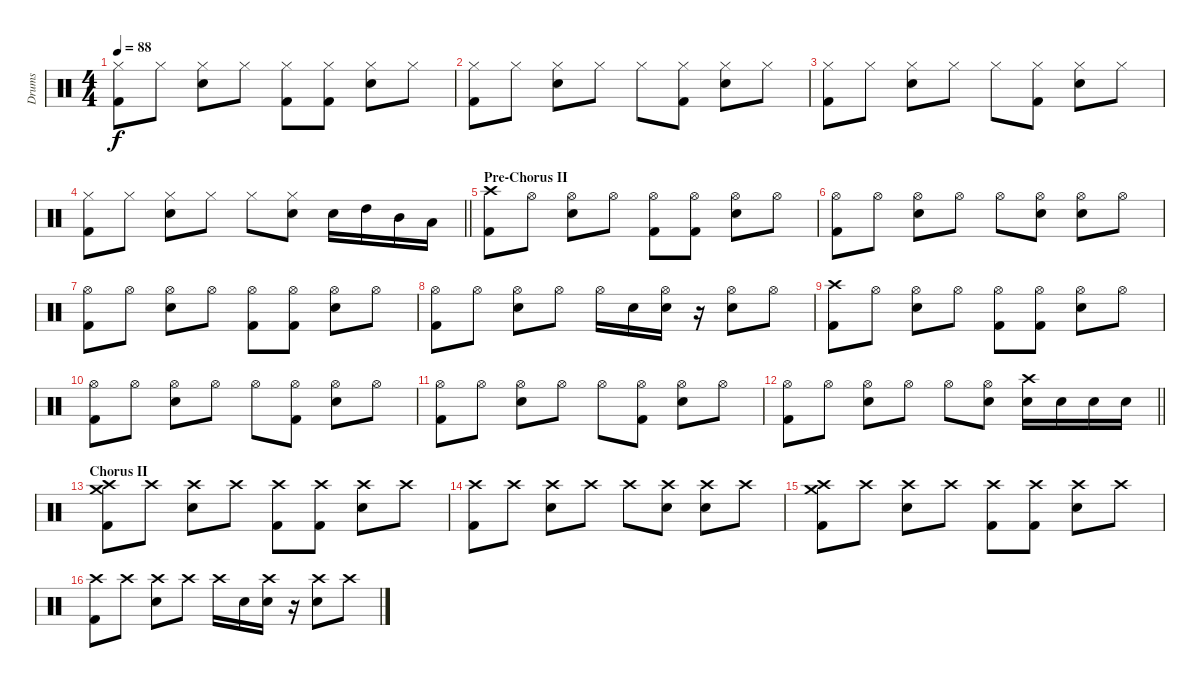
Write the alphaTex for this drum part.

\track ("Drums" "Drums") {instrument percussion}
\staff {score}
\articulation defaults
\ts (4 4)
\tempo 88
\clef neutral
\ks c
("Hi-Hat (closed)" "Kick (hit) 2").8{dy f} "Hi-Hat (closed)".8 ("Hi-Hat (closed)" "Electric Snare (hit)").8 "Hi-Hat (closed)".8 ("Hi-Hat (closed)" "Kick (hit) 2").8 ("Hi-Hat (closed)" "Kick (hit) 2").8 ("Hi-Hat (closed)" "Electric Snare (hit)").8 "Hi-Hat (closed)".8 |
("Hi-Hat (closed)" "Kick (hit) 2").8 "Hi-Hat (closed)".8 ("Hi-Hat (closed)" "Electric Snare (hit)").8 "Hi-Hat (closed)".8 "Hi-Hat (closed)".8 ("Hi-Hat (closed)" "Kick (hit) 2").8 ("Hi-Hat (closed)" "Electric Snare (hit)").8 "Hi-Hat (closed)".8 |
("Hi-Hat (closed)" "Kick (hit) 2").8 "Hi-Hat (closed)".8 ("Hi-Hat (closed)" "Electric Snare (hit)").8 "Hi-Hat (closed)".8 "Hi-Hat (closed)".8 ("Hi-Hat (closed)" "Kick (hit) 2").8 ("Hi-Hat (closed)" "Electric Snare (hit)").8 "Hi-Hat (closed)".8 |
\barLineRight lightlight
("Hi-Hat (closed)" "Kick (hit) 2").8 "Hi-Hat (closed)".8 ("Hi-Hat (closed)" "Electric Snare (hit)").8 "Hi-Hat (closed)".8 "Hi-Hat (closed)".8 ("Hi-Hat (closed)" "Electric Snare (hit)").8 "Electric Snare (hit)".16 "High Tom (hit)".16 "Mid Tom (hit)".16 "Low Tom (hit)".16 |
\section ("" "Pre-Chorus II")
("Crash high (hit)" "Kick (hit) 2").8 "Hi-Hat (open)".8 ("Hi-Hat (open)" "Electric Snare (hit)").8 "Hi-Hat (open)".8 ("Hi-Hat (open)" "Kick (hit) 2").8 ("Hi-Hat (open)" "Kick (hit) 2").8 ("Hi-Hat (open)" "Electric Snare (hit)").8 "Hi-Hat (open)".8 |
("Hi-Hat (open)" "Kick (hit) 2").8 "Hi-Hat (open)".8 ("Hi-Hat (open)" "Electric Snare (hit)").8 "Hi-Hat (open)".8 "Hi-Hat (open)".8 ("Hi-Hat (open)" "Electric Snare (hit)").8 ("Hi-Hat (open)" "Electric Snare (hit)").8 "Hi-Hat (open)".8 |
("Hi-Hat (open)" "Kick (hit) 2").8 "Hi-Hat (open)".8 ("Hi-Hat (open)" "Electric Snare (hit)").8 "Hi-Hat (open)".8 ("Hi-Hat (open)" "Kick (hit) 2").8 ("Hi-Hat (open)" "Kick (hit) 2").8 ("Hi-Hat (open)" "Electric Snare (hit)").8 "Hi-Hat (open)".8 |
("Hi-Hat (open)" "Kick (hit) 2").8 "Hi-Hat (open)".8 ("Hi-Hat (open)" "Electric Snare (hit)").8 "Hi-Hat (open)".8 "Hi-Hat (open)".16 "Electric Snare (hit)".16 ("Hi-Hat (open)" "Electric Snare (hit)").16 r.16 ("Hi-Hat (open)" "Electric Snare (hit)").8 "Hi-Hat (open)".8 |
("Crash high (hit)" "Kick (hit) 2").8 "Hi-Hat (open)".8 ("Hi-Hat (open)" "Electric Snare (hit)").8 "Hi-Hat (open)".8 ("Hi-Hat (open)" "Kick (hit) 2").8 ("Hi-Hat (open)" "Kick (hit) 2").8 ("Hi-Hat (open)" "Electric Snare (hit)").8 "Hi-Hat (open)".8 |
("Hi-Hat (open)" "Kick (hit) 2").8 "Hi-Hat (open)".8 ("Hi-Hat (open)" "Electric Snare (hit)").8 "Hi-Hat (open)".8 "Hi-Hat (open)".8 ("Hi-Hat (open)" "Kick (hit) 2").8 ("Hi-Hat (open)" "Electric Snare (hit)").8 "Hi-Hat (open)".8 |
("Hi-Hat (open)" "Kick (hit) 2").8 "Hi-Hat (open)".8 ("Hi-Hat (open)" "Electric Snare (hit)").8 "Hi-Hat (open)".8 "Hi-Hat (open)".8 ("Hi-Hat (open)" "Kick (hit) 2").8 ("Hi-Hat (open)" "Electric Snare (hit)").8 "Hi-Hat (open)".8 |
\barLineRight lightlight
("Hi-Hat (open)" "Kick (hit) 2").8 "Hi-Hat (open)".8 ("Hi-Hat (open)" "Electric Snare (hit)").8 "Hi-Hat (open)".8 "Hi-Hat (open)".8 ("Hi-Hat (open)" "Electric Snare (hit)").8 ("Crash high (hit)" "Electric Snare (hit)").16 "Electric Snare (hit)".16 "Electric Snare (hit)".16 "Electric Snare (hit)".16 |
\section ("" "Chorus II")
("Crash high (hit)" "Crash medium (hit)" "Kick (hit) 2").8 "Crash high (hit)".8 ("Crash high (hit)" "Electric Snare (hit)").8 "Crash high (hit)".8 ("Crash high (hit)" "Kick (hit) 2").8 ("Crash high (hit)" "Kick (hit) 2").8 ("Crash high (hit)" "Electric Snare (hit)").8 "Crash high (hit)".8 |
("Crash high (hit)" "Kick (hit) 2").8 "Crash high (hit)".8 ("Crash high (hit)" "Electric Snare (hit)").8 "Crash high (hit)".8 "Crash high (hit)".8 ("Crash high (hit)" "Electric Snare (hit)").8 ("Crash high (hit)" "Electric Snare (hit)").8 "Crash high (hit)".8 |
("Crash high (hit)" "Crash medium (hit)" "Kick (hit) 2").8 "Crash high (hit)".8 ("Crash high (hit)" "Electric Snare (hit)").8 "Crash high (hit)".8 ("Crash high (hit)" "Kick (hit) 2").8 ("Crash high (hit)" "Kick (hit) 2").8 ("Crash high (hit)" "Electric Snare (hit)").8 "Crash high (hit)".8 |
("Crash high (hit)" "Kick (hit) 2").8 "Crash high (hit)".8 ("Crash high (hit)" "Electric Snare (hit)").8 "Crash high (hit)".8 "Crash high (hit)".16 "Electric Snare (hit)".16 ("Crash high (hit)" "Electric Snare (hit)").16 r.16 ("Crash high (hit)" "Electric Snare (hit)").8 "Crash high (hit)".8
